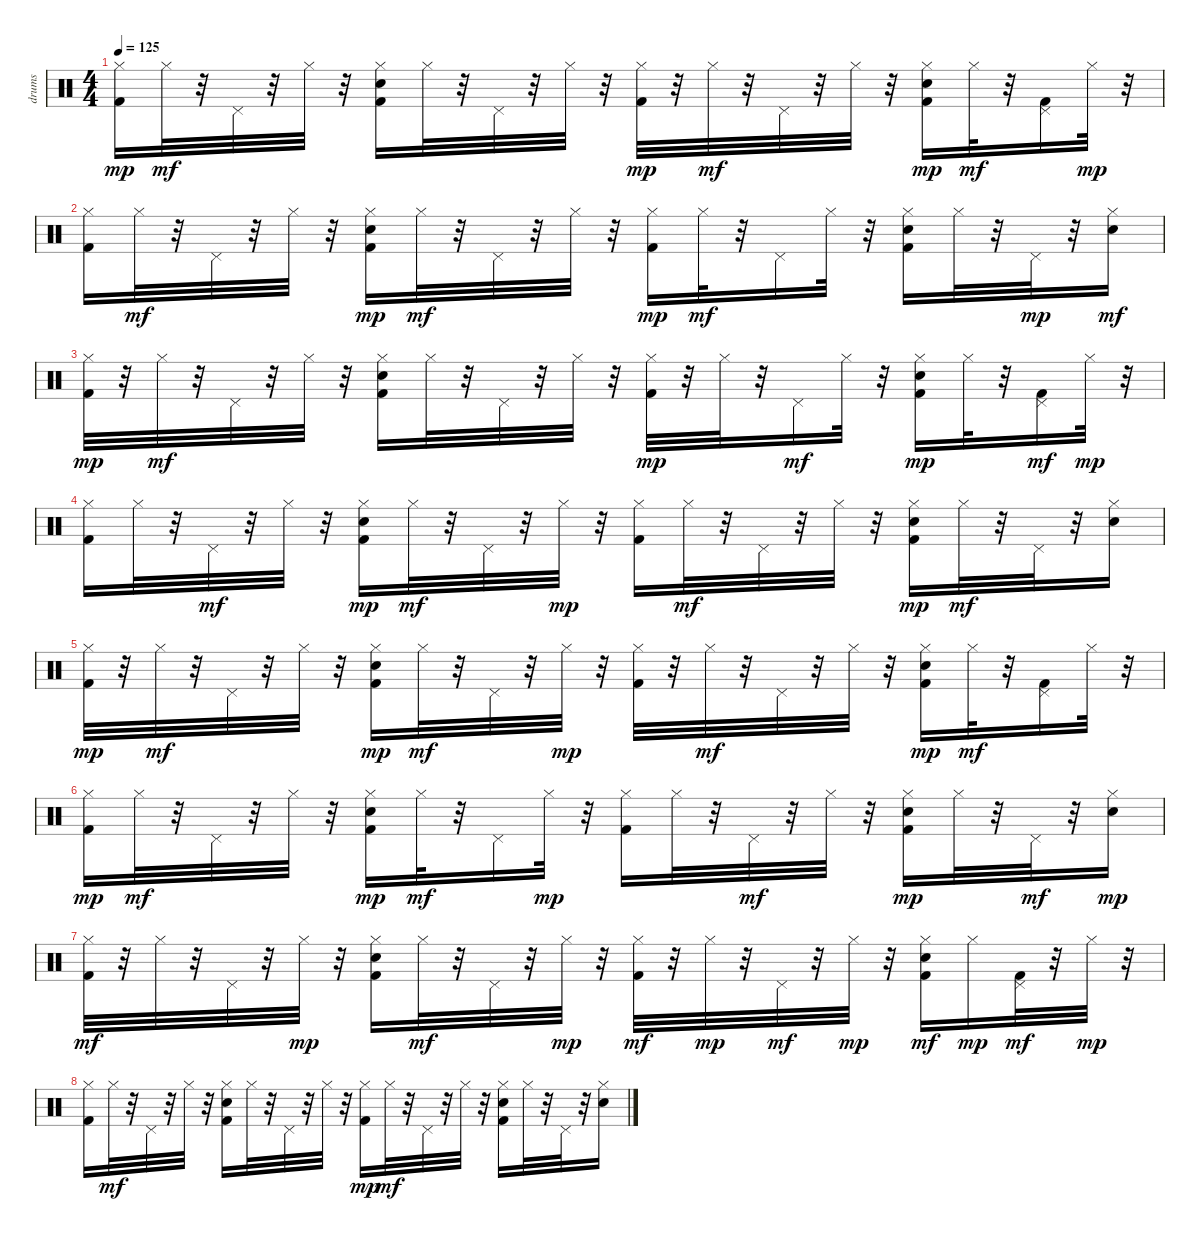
\track ("drums   " "drums   ") {instrument percussion}
\staff {score}
\articulation defaults
\ts (4 4)
\tempo 125
\clef neutral
\ks c
("Kick (hit) 2" "Hi-Hat (closed)").16{dy mp} "Hi-Hat (closed)".32{dy mf} r.32 "Pedal Hi-Hat (hit)".32 r.32 "Hi-Hat (closed)".32 r.32 ("Kick (hit) 2" "Snare (hit) 2" "Hi-Hat (closed)").16 "Hi-Hat (closed)".32 r.32 "Pedal Hi-Hat (hit)".32 r.32 "Hi-Hat (closed)".32 r.32 ("Kick (hit) 2" "Hi-Hat (closed)").32{dy mp} r.32 "Hi-Hat (closed)".32{dy mf} r.32 "Pedal Hi-Hat (hit)".32 r.32 "Hi-Hat (closed)".32 r.32 ("Kick (hit) 2" "Snare (hit) 2" "Hi-Hat (closed)").16{dy mp} "Hi-Hat (closed)".32{dy mf} r.32 ("Kick (hit) 2" "Pedal Hi-Hat (hit)").16 "Hi-Hat (closed)".32{dy mp} r.32 |
("Kick (hit) 2" "Hi-Hat (closed)").16 "Hi-Hat (closed)".32{dy mf} r.32 "Pedal Hi-Hat (hit)".32 r.32 "Hi-Hat (closed)".32 r.32 ("Kick (hit) 2" "Snare (hit) 2" "Hi-Hat (closed)").16{dy mp} "Hi-Hat (closed)".32{dy mf} r.32 "Pedal Hi-Hat (hit)".32 r.32 "Hi-Hat (closed)".32 r.32 ("Kick (hit) 2" "Hi-Hat (closed)").16{dy mp} "Hi-Hat (closed)".32{dy mf} r.32 "Pedal Hi-Hat (hit)".16 "Hi-Hat (closed)".32 r.32 ("Kick (hit) 2" "Snare (hit) 2" "Hi-Hat (closed)").16 "Hi-Hat (closed)".32 r.32 "Pedal Hi-Hat (hit)".32{dy mp} r.32 ("Snare (hit) 2" "Hi-Hat (closed)").16{dy mf} |
("Kick (hit) 2" "Hi-Hat (closed)").32{dy mp} r.32 "Hi-Hat (closed)".32{dy mf} r.32 "Pedal Hi-Hat (hit)".32 r.32 "Hi-Hat (closed)".32 r.32 ("Kick (hit) 2" "Snare (hit) 2" "Hi-Hat (closed)").16 "Hi-Hat (closed)".32 r.32 "Pedal Hi-Hat (hit)".32 r.32 "Hi-Hat (closed)".32 r.32 ("Kick (hit) 2" "Hi-Hat (closed)").32{dy mp} r.32 "Hi-Hat (closed)".32 r.32 "Pedal Hi-Hat (hit)".16{dy mf} "Hi-Hat (closed)".32 r.32 ("Kick (hit) 2" "Snare (hit) 2" "Hi-Hat (closed)").16{dy mp} "Hi-Hat (closed)".32 r.32 ("Kick (hit) 2" "Pedal Hi-Hat (hit)").16{dy mf} "Hi-Hat (closed)".32{dy mp} r.32 |
("Kick (hit) 2" "Hi-Hat (closed)").16 "Hi-Hat (closed)".32 r.32 "Pedal Hi-Hat (hit)".32{dy mf} r.32 "Hi-Hat (closed)".32 r.32 ("Kick (hit) 2" "Snare (hit) 2" "Hi-Hat (closed)").16{dy mp} "Hi-Hat (closed)".32{dy mf} r.32 "Pedal Hi-Hat (hit)".32 r.32 "Hi-Hat (closed)".32{dy mp} r.32 ("Kick (hit) 2" "Hi-Hat (closed)").16 "Hi-Hat (closed)".32{dy mf} r.32 "Pedal Hi-Hat (hit)".32 r.32 "Hi-Hat (closed)".32 r.32 ("Kick (hit) 2" "Snare (hit) 2" "Hi-Hat (closed)").16{dy mp} "Hi-Hat (closed)".32{dy mf} r.32 "Pedal Hi-Hat (hit)".32 r.32 ("Snare (hit) 2" "Hi-Hat (closed)").16 |
("Kick (hit) 2" "Hi-Hat (closed)").32{dy mp} r.32 "Hi-Hat (closed)".32{dy mf} r.32 "Pedal Hi-Hat (hit)".32 r.32 "Hi-Hat (closed)".32 r.32 ("Kick (hit) 2" "Snare (hit) 2" "Hi-Hat (closed)").16{dy mp} "Hi-Hat (closed)".32{dy mf} r.32 "Pedal Hi-Hat (hit)".32 r.32 "Hi-Hat (closed)".32{dy mp} r.32 ("Kick (hit) 2" "Hi-Hat (closed)").32 r.32 "Hi-Hat (closed)".32{dy mf} r.32 "Pedal Hi-Hat (hit)".32 r.32 "Hi-Hat (closed)".32 r.32 ("Kick (hit) 2" "Snare (hit) 2" "Hi-Hat (closed)").16{dy mp} "Hi-Hat (closed)".32{dy mf} r.32 ("Kick (hit) 2" "Pedal Hi-Hat (hit)").16 "Hi-Hat (closed)".32 r.32 |
("Kick (hit) 2" "Hi-Hat (closed)").16{dy mp} "Hi-Hat (closed)".32{dy mf} r.32 "Pedal Hi-Hat (hit)".32 r.32 "Hi-Hat (closed)".32 r.32 ("Kick (hit) 2" "Snare (hit) 2" "Hi-Hat (closed)").16{dy mp} "Hi-Hat (closed)".32{dy mf} r.32 "Pedal Hi-Hat (hit)".16 "Hi-Hat (closed)".32{dy mp} r.32 ("Kick (hit) 2" "Hi-Hat (closed)").16 "Hi-Hat (closed)".32 r.32 "Pedal Hi-Hat (hit)".32{dy mf} r.32 "Hi-Hat (closed)".32 r.32 ("Kick (hit) 2" "Snare (hit) 2" "Hi-Hat (closed)").16{dy mp} "Hi-Hat (closed)".32 r.32 "Pedal Hi-Hat (hit)".32{dy mf} r.32 ("Snare (hit) 2" "Hi-Hat (closed)").16{dy mp} |
("Kick (hit) 2" "Hi-Hat (closed)").32{dy mf} r.32 "Hi-Hat (closed)".32 r.32 "Pedal Hi-Hat (hit)".32 r.32 "Hi-Hat (closed)".32{dy mp} r.32 ("Kick (hit) 2" "Snare (hit) 2" "Hi-Hat (closed)").16 "Hi-Hat (closed)".32{dy mf} r.32 "Pedal Hi-Hat (hit)".32 r.32 "Hi-Hat (closed)".32{dy mp} r.32 ("Kick (hit) 2" "Hi-Hat (closed)").32{dy mf} r.32 "Hi-Hat (closed)".32{dy mp} r.32 "Pedal Hi-Hat (hit)".32{dy mf} r.32 "Hi-Hat (closed)".32{dy mp} r.32 ("Kick (hit) 2" "Snare (hit) 2" "Hi-Hat (closed)").16{dy mf} "Hi-Hat (closed)".16{dy mp} ("Kick (hit) 2" "Pedal Hi-Hat (hit)").32{dy mf} r.32 "Hi-Hat (closed)".32{dy mp} r.32 |
("Kick (hit) 2" "Hi-Hat (closed)").16 "Hi-Hat (closed)".32{dy mf} r.32 "Pedal Hi-Hat (hit)".32 r.32 "Hi-Hat (closed)".32 r.32 ("Kick (hit) 2" "Snare (hit) 2" "Hi-Hat (closed)").16 "Hi-Hat (closed)".32 r.32 "Pedal Hi-Hat (hit)".32 r.32 "Hi-Hat (closed)".32 r.32 ("Kick (hit) 2" "Hi-Hat (closed)").16{dy mp} "Hi-Hat (closed)".32{dy mf} r.32 "Pedal Hi-Hat (hit)".32 r.32 "Hi-Hat (closed)".32 r.32 ("Kick (hit) 2" "Snare (hit) 2" "Hi-Hat (closed)").16 "Hi-Hat (closed)".32 r.32 "Pedal Hi-Hat (hit)".32 r.32 ("Snare (hit) 2" "Hi-Hat (closed)").16
